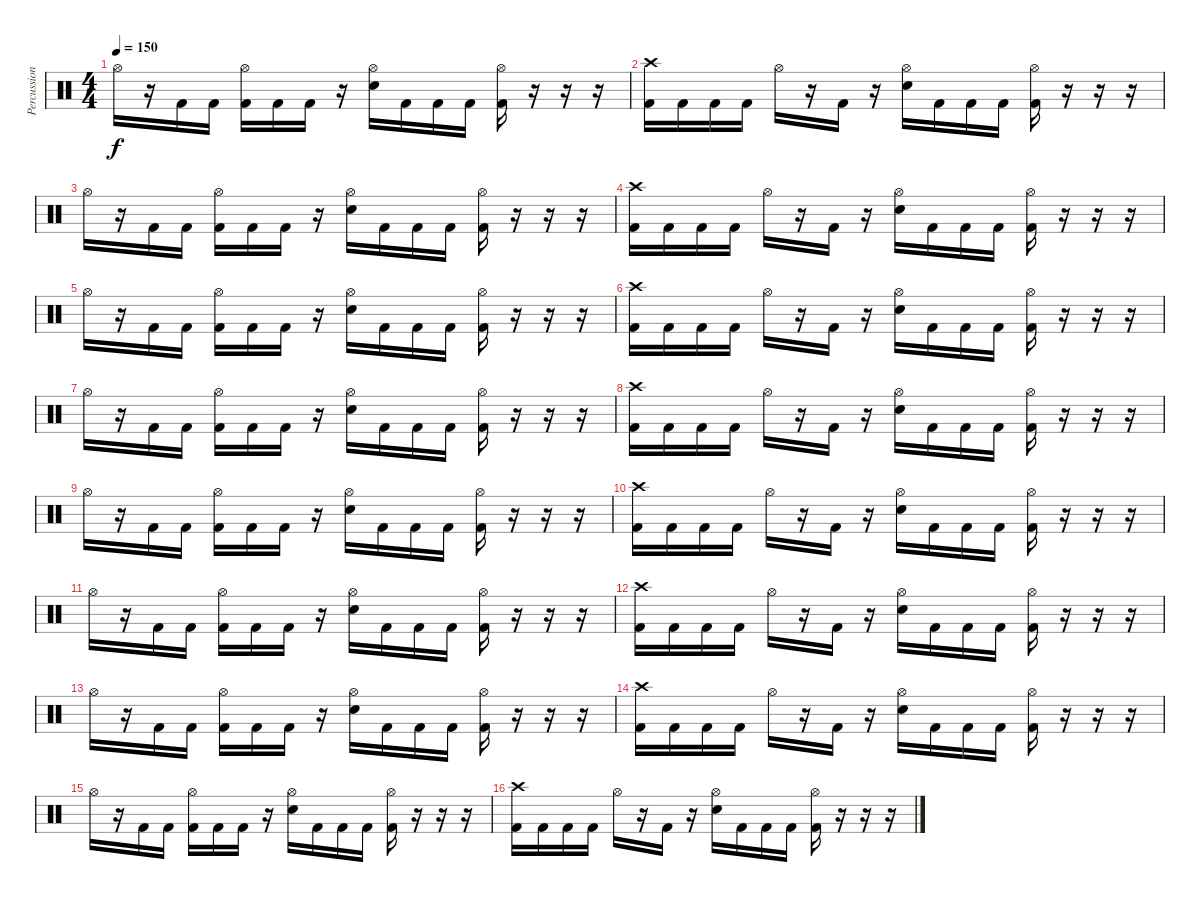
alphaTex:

\track ("Percussion" "Percussion") {instrument percussion}
\staff {score}
\articulation defaults
\ts (4 4)
\tempo 150
\clef neutral
\ks c "Hi-Hat (open)".16{dy f}
r.16 "Kick (hit) 2".16 "Kick (hit) 2".16 ("Hi-Hat (open)" "Kick (hit) 2").16 "Kick (hit) 2".16 "Kick (hit) 2".16 r.16 ("Hi-Hat (open)" "Snare (hit) 2").16 "Kick (hit) 2".16 "Kick (hit) 2".16 "Kick (hit) 2".16 ("Hi-Hat (open)" "Kick (hit) 2").16 r.16 r.16 r.16 |
("Crash high (hit)" "Kick (hit) 2").16 "Kick (hit) 2".16 "Kick (hit) 2".16 "Kick (hit) 2".16 "Hi-Hat (open)".16 r.16 "Kick (hit) 2".16 r.16 ("Hi-Hat (open)" "Snare (hit) 2").16 "Kick (hit) 2".16 "Kick (hit) 2".16 "Kick (hit) 2".16 ("Hi-Hat (open)" "Kick (hit) 2").16 r.16 r.16 r.16 |
"Hi-Hat (open)".16 r.16 "Kick (hit) 2".16 "Kick (hit) 2".16 ("Hi-Hat (open)" "Kick (hit) 2").16 "Kick (hit) 2".16 "Kick (hit) 2".16 r.16 ("Hi-Hat (open)" "Snare (hit) 2").16 "Kick (hit) 2".16 "Kick (hit) 2".16 "Kick (hit) 2".16 ("Hi-Hat (open)" "Kick (hit) 2").16 r.16 r.16 r.16 |
("Crash high (hit)" "Kick (hit) 2").16 "Kick (hit) 2".16 "Kick (hit) 2".16 "Kick (hit) 2".16 "Hi-Hat (open)".16 r.16 "Kick (hit) 2".16 r.16 ("Hi-Hat (open)" "Snare (hit) 2").16 "Kick (hit) 2".16 "Kick (hit) 2".16 "Kick (hit) 2".16 ("Hi-Hat (open)" "Kick (hit) 2").16 r.16 r.16 r.16 |
"Hi-Hat (open)".16 r.16 "Kick (hit) 2".16 "Kick (hit) 2".16 ("Hi-Hat (open)" "Kick (hit) 2").16 "Kick (hit) 2".16 "Kick (hit) 2".16 r.16 ("Hi-Hat (open)" "Snare (hit) 2").16 "Kick (hit) 2".16 "Kick (hit) 2".16 "Kick (hit) 2".16 ("Hi-Hat (open)" "Kick (hit) 2").16 r.16 r.16 r.16 |
("Crash high (hit)" "Kick (hit) 2").16 "Kick (hit) 2".16 "Kick (hit) 2".16 "Kick (hit) 2".16 "Hi-Hat (open)".16 r.16 "Kick (hit) 2".16 r.16 ("Hi-Hat (open)" "Snare (hit) 2").16 "Kick (hit) 2".16 "Kick (hit) 2".16 "Kick (hit) 2".16 ("Hi-Hat (open)" "Kick (hit) 2").16 r.16 r.16 r.16 |
"Hi-Hat (open)".16 r.16 "Kick (hit) 2".16 "Kick (hit) 2".16 ("Hi-Hat (open)" "Kick (hit) 2").16 "Kick (hit) 2".16 "Kick (hit) 2".16 r.16 ("Hi-Hat (open)" "Snare (hit) 2").16 "Kick (hit) 2".16 "Kick (hit) 2".16 "Kick (hit) 2".16 ("Hi-Hat (open)" "Kick (hit) 2").16 r.16 r.16 r.16 |
("Crash high (hit)" "Kick (hit) 2").16 "Kick (hit) 2".16 "Kick (hit) 2".16 "Kick (hit) 2".16 "Hi-Hat (open)".16 r.16 "Kick (hit) 2".16 r.16 ("Hi-Hat (open)" "Snare (hit) 2").16 "Kick (hit) 2".16 "Kick (hit) 2".16 "Kick (hit) 2".16 ("Hi-Hat (open)" "Kick (hit) 2").16 r.16 r.16 r.16 |
"Hi-Hat (open)".16 r.16 "Kick (hit) 2".16 "Kick (hit) 2".16 ("Hi-Hat (open)" "Kick (hit) 2").16 "Kick (hit) 2".16 "Kick (hit) 2".16 r.16 ("Hi-Hat (open)" "Snare (hit) 2").16 "Kick (hit) 2".16 "Kick (hit) 2".16 "Kick (hit) 2".16 ("Hi-Hat (open)" "Kick (hit) 2").16 r.16 r.16 r.16 |
("Crash high (hit)" "Kick (hit) 2").16 "Kick (hit) 2".16 "Kick (hit) 2".16 "Kick (hit) 2".16 "Hi-Hat (open)".16 r.16 "Kick (hit) 2".16 r.16 ("Hi-Hat (open)" "Snare (hit) 2").16 "Kick (hit) 2".16 "Kick (hit) 2".16 "Kick (hit) 2".16 ("Hi-Hat (open)" "Kick (hit) 2").16 r.16 r.16 r.16 |
"Hi-Hat (open)".16 r.16 "Kick (hit) 2".16 "Kick (hit) 2".16 ("Hi-Hat (open)" "Kick (hit) 2").16 "Kick (hit) 2".16 "Kick (hit) 2".16 r.16 ("Hi-Hat (open)" "Snare (hit) 2").16 "Kick (hit) 2".16 "Kick (hit) 2".16 "Kick (hit) 2".16 ("Hi-Hat (open)" "Kick (hit) 2").16 r.16 r.16 r.16 |
("Crash high (hit)" "Kick (hit) 2").16 "Kick (hit) 2".16 "Kick (hit) 2".16 "Kick (hit) 2".16 "Hi-Hat (open)".16 r.16 "Kick (hit) 2".16 r.16 ("Hi-Hat (open)" "Snare (hit) 2").16 "Kick (hit) 2".16 "Kick (hit) 2".16 "Kick (hit) 2".16 ("Hi-Hat (open)" "Kick (hit) 2").16 r.16 r.16 r.16 |
"Hi-Hat (open)".16 r.16 "Kick (hit) 2".16 "Kick (hit) 2".16 ("Hi-Hat (open)" "Kick (hit) 2").16 "Kick (hit) 2".16 "Kick (hit) 2".16 r.16 ("Hi-Hat (open)" "Snare (hit) 2").16 "Kick (hit) 2".16 "Kick (hit) 2".16 "Kick (hit) 2".16 ("Hi-Hat (open)" "Kick (hit) 2").16 r.16 r.16 r.16 |
("Crash high (hit)" "Kick (hit) 2").16 "Kick (hit) 2".16 "Kick (hit) 2".16 "Kick (hit) 2".16 "Hi-Hat (open)".16 r.16 "Kick (hit) 2".16 r.16 ("Hi-Hat (open)" "Snare (hit) 2").16 "Kick (hit) 2".16 "Kick (hit) 2".16 "Kick (hit) 2".16 ("Hi-Hat (open)" "Kick (hit) 2").16 r.16 r.16 r.16 |
"Hi-Hat (open)".16 r.16 "Kick (hit) 2".16 "Kick (hit) 2".16 ("Hi-Hat (open)" "Kick (hit) 2").16 "Kick (hit) 2".16 "Kick (hit) 2".16 r.16 ("Hi-Hat (open)" "Snare (hit) 2").16 "Kick (hit) 2".16 "Kick (hit) 2".16 "Kick (hit) 2".16 ("Hi-Hat (open)" "Kick (hit) 2").16 r.16 r.16 r.16 |
("Crash high (hit)" "Kick (hit) 2").16 "Kick (hit) 2".16 "Kick (hit) 2".16 "Kick (hit) 2".16 "Hi-Hat (open)".16 r.16 "Kick (hit) 2".16 r.16 ("Hi-Hat (open)" "Snare (hit) 2").16 "Kick (hit) 2".16 "Kick (hit) 2".16 "Kick (hit) 2".16 ("Hi-Hat (open)" "Kick (hit) 2").16 r.16 r.16 r.16
